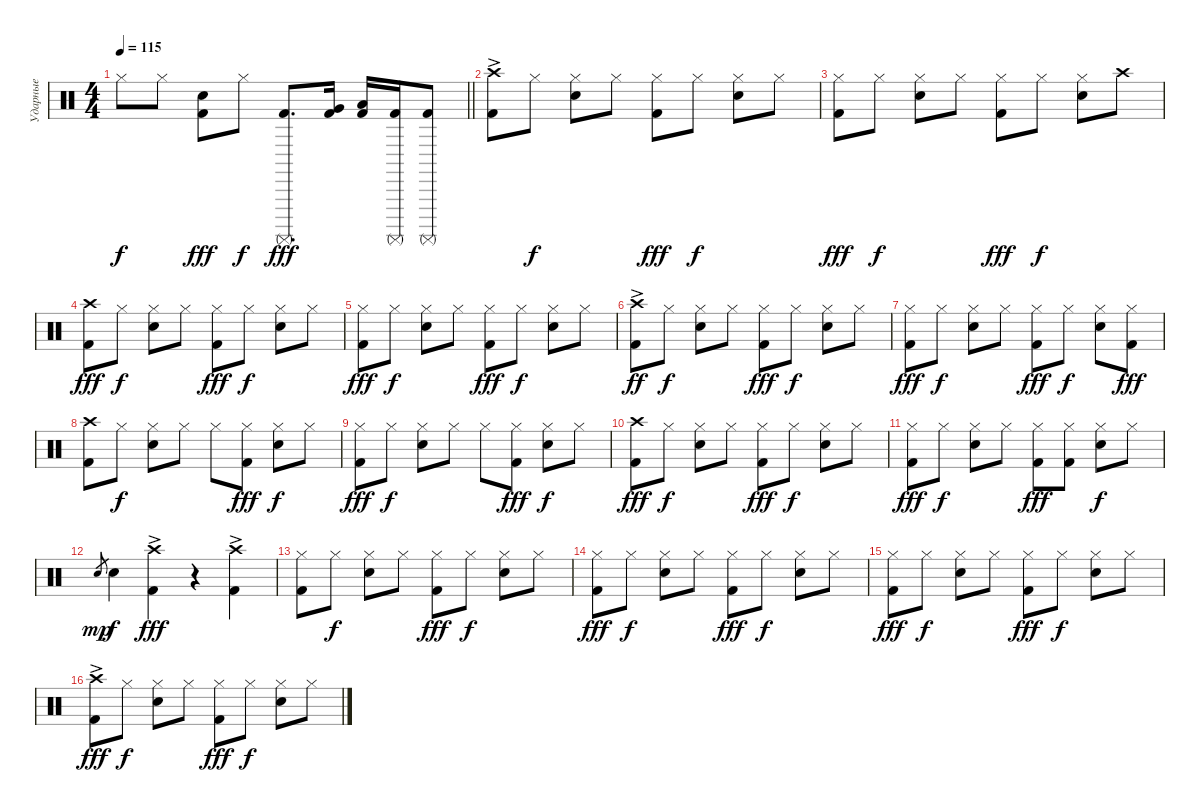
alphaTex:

\track ("Ударные" "Ударные") {instrument percussion}
\staff {score}
\articulation defaults
\ts (4 4)
\tempo 115
\clef neutral
\barLineRight lightlight
\ks c "Hi-Hat (closed)".8{dy f} "Hi-Hat (closed)".8
("Kick (hit) 2" "Snare (hit) 2").8{dy fff} "Hi-Hat (closed)".8{dy f} ("Kick (hit) 2" "Surdo (mute)").8{d dy fff} ("Kick (hit) 2" "Very Low Tom (hit)").16 ("Kick (hit) 2" "Low Floor Tom (hit)").16 ("Kick (hit) 2" "Surdo (mute)").16 ("Kick (hit) 2" "Surdo (mute)").8 |
("Kick (hit) 2" "Crash high (hit)"{ac}).8 "Hi-Hat (closed)".8{dy f} ("Snare (hit) 2" "Hi-Hat (closed)").8 "Hi-Hat (closed)".8 ("Kick (hit) 2" "Hi-Hat (closed)").8{dy fff} "Hi-Hat (closed)".8{dy f} ("Snare (hit) 2" "Hi-Hat (closed)").8 "Hi-Hat (closed)".8 |
("Kick (hit) 2" "Hi-Hat (closed)").8{dy fff} "Hi-Hat (closed)".8{dy f} ("Snare (hit) 2" "Hi-Hat (closed)").8 "Hi-Hat (closed)".8 ("Kick (hit) 2" "Hi-Hat (closed)").8{dy fff} "Hi-Hat (closed)".8{dy f} ("Snare (hit) 2" "Hi-Hat (closed)").8 "Crash high (hit)".8 |
("Kick (hit) 2" "Crash high (hit)").8{dy fff} "Hi-Hat (closed)".8{dy f} ("Snare (hit) 2" "Hi-Hat (closed)").8 "Hi-Hat (closed)".8 ("Kick (hit) 2" "Hi-Hat (closed)").8{dy fff} "Hi-Hat (closed)".8{dy f} ("Snare (hit) 2" "Hi-Hat (closed)").8 "Hi-Hat (closed)".8 |
("Kick (hit) 2" "Hi-Hat (closed)").8{dy fff} "Hi-Hat (closed)".8{dy f} ("Snare (hit) 2" "Hi-Hat (closed)").8 "Hi-Hat (closed)".8 ("Kick (hit) 2" "Hi-Hat (closed)").8{dy fff} "Hi-Hat (closed)".8{dy f} ("Snare (hit) 2" "Hi-Hat (closed)").8 "Hi-Hat (closed)".8 |
("Kick (hit) 2" "Crash high (hit)"{ac}).8{dy ff} "Hi-Hat (closed)".8{dy f} ("Snare (hit) 2" "Hi-Hat (closed)").8 "Hi-Hat (closed)".8 ("Kick (hit) 2" "Hi-Hat (closed)").8{dy fff} "Hi-Hat (closed)".8{dy f} ("Snare (hit) 2" "Hi-Hat (closed)").8 "Hi-Hat (closed)".8 |
("Kick (hit) 2" "Hi-Hat (closed)").8{dy fff} "Hi-Hat (closed)".8{dy f} ("Snare (hit) 2" "Hi-Hat (closed)").8 "Hi-Hat (closed)".8 ("Kick (hit) 2" "Hi-Hat (closed)").8{dy fff} "Hi-Hat (closed)".8{dy f} ("Snare (hit) 2" "Hi-Hat (closed)").8 ("Kick (hit) 2" "Hi-Hat (closed)").8{dy fff} |
("Kick (hit) 2" "Crash high (hit)").8 "Hi-Hat (closed)".8{dy f} ("Snare (hit) 2" "Hi-Hat (closed)").8 "Hi-Hat (closed)".8 "Hi-Hat (closed)".8 ("Kick (hit) 2" "Hi-Hat (closed)").8{dy fff} ("Snare (hit) 2" "Hi-Hat (closed)").8{dy f} "Hi-Hat (closed)".8 |
("Kick (hit) 2" "Hi-Hat (closed)").8{dy fff} "Hi-Hat (closed)".8{dy f} ("Snare (hit) 2" "Hi-Hat (closed)").8 "Hi-Hat (closed)".8 "Hi-Hat (closed)".8 ("Kick (hit) 2" "Hi-Hat (closed)").8{dy fff} ("Snare (hit) 2" "Hi-Hat (closed)").8{dy f} "Hi-Hat (closed)".8 |
("Kick (hit) 2" "Crash high (hit)").8{dy fff} "Hi-Hat (closed)".8{dy f} ("Snare (hit) 2" "Hi-Hat (closed)").8 "Hi-Hat (closed)".8 ("Kick (hit) 2" "Hi-Hat (closed)").8{dy fff} "Hi-Hat (closed)".8{dy f} ("Snare (hit) 2" "Hi-Hat (closed)").8 "Hi-Hat (closed)".8 |
("Kick (hit) 2" "Hi-Hat (closed)").8{dy fff} "Hi-Hat (closed)".8{dy f} ("Snare (hit) 2" "Hi-Hat (closed)").8 "Hi-Hat (closed)".8 ("Kick (hit) 2" "Hi-Hat (closed)").8{dy fff} ("Kick (hit) 2" "Hi-Hat (closed)").8 ("Snare (hit) 2" "Hi-Hat (closed)").8{dy f} "Hi-Hat (closed)".8 |
"Snare (hit) 2".8{gr dy mp} "Snare (hit) 2".4{dy f} ("Kick (hit) 2" "Crash high (hit)"{ac}).4{dy fff} r.4 ("Kick (hit) 2" "Crash high (hit)"{ac}).4 |
("Kick (hit) 2" "Hi-Hat (closed)").8 "Hi-Hat (closed)".8{dy f} ("Snare (hit) 2" "Hi-Hat (closed)").8 "Hi-Hat (closed)".8 ("Kick (hit) 2" "Hi-Hat (closed)").8{dy fff} "Hi-Hat (closed)".8{dy f} ("Snare (hit) 2" "Hi-Hat (closed)").8 "Hi-Hat (closed)".8 |
("Kick (hit) 2" "Hi-Hat (closed)").8{dy fff} "Hi-Hat (closed)".8{dy f} ("Snare (hit) 2" "Hi-Hat (closed)").8 "Hi-Hat (closed)".8 ("Kick (hit) 2" "Hi-Hat (closed)").8{dy fff} "Hi-Hat (closed)".8{dy f} ("Snare (hit) 2" "Hi-Hat (closed)").8 "Hi-Hat (closed)".8 |
("Kick (hit) 2" "Hi-Hat (closed)").8{dy fff} "Hi-Hat (closed)".8{dy f} ("Snare (hit) 2" "Hi-Hat (closed)").8 "Hi-Hat (closed)".8 ("Kick (hit) 2" "Hi-Hat (closed)").8{dy fff} "Hi-Hat (closed)".8{dy f} ("Snare (hit) 2" "Hi-Hat (closed)").8 "Hi-Hat (closed)".8 |
("Kick (hit) 2" "Crash high (hit)"{ac}).8{dy fff} "Hi-Hat (closed)".8{dy f} ("Snare (hit) 2" "Hi-Hat (closed)").8 "Hi-Hat (closed)".8 ("Kick (hit) 2" "Hi-Hat (closed)").8{dy fff} "Hi-Hat (closed)".8{dy f} ("Snare (hit) 2" "Hi-Hat (closed)").8 "Hi-Hat (closed)".8
